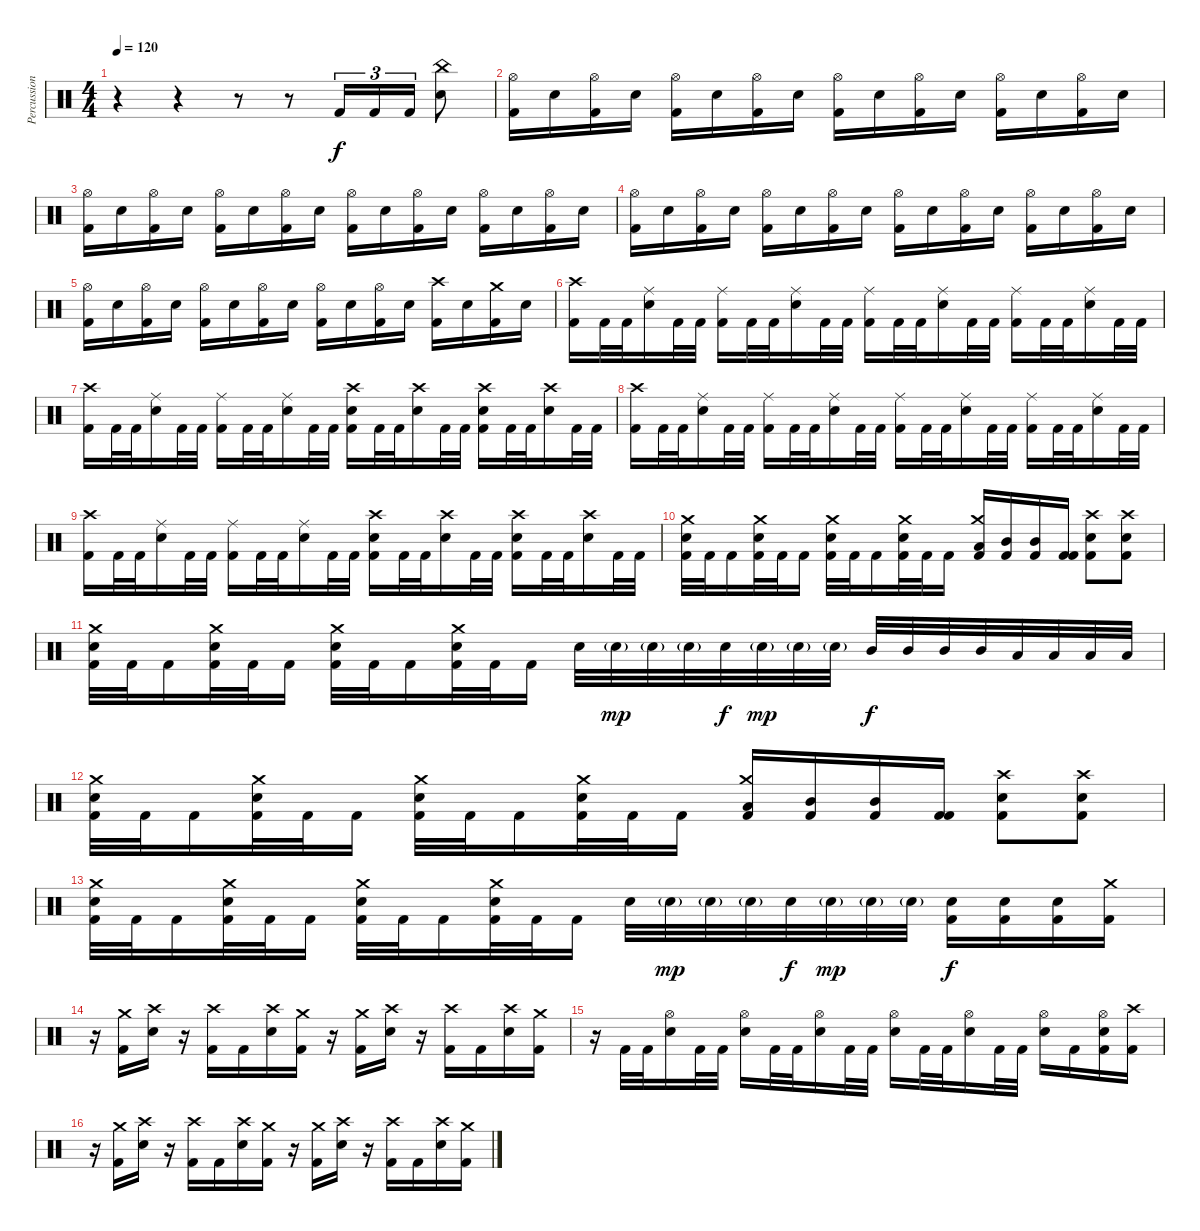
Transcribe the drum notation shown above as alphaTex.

\track ("Percussion" "Percussion") {instrument percussion}
\staff {score}
\articulation defaults
\ts (4 4)
\tempo 120
\clef neutral
\ks c
r.4{dy f} r.4 r.8 r.8 "Kick (hit) 2".16{tu (3 2)} "Kick (hit) 2".16{tu (3 2)} "Kick (hit) 2".16{tu (3 2)} ("China (hit)" "Electric Snare (hit)").8 |
("Hi-Hat (open)" "Kick (hit) 2").16 "Electric Snare (hit)".16 ("Hi-Hat (open)" "Kick (hit) 2").16 "Electric Snare (hit)".16 ("Hi-Hat (open)" "Kick (hit) 2").16 "Electric Snare (hit)".16 ("Hi-Hat (open)" "Kick (hit) 2").16 "Electric Snare (hit)".16 ("Hi-Hat (open)" "Kick (hit) 2").16 "Electric Snare (hit)".16 ("Hi-Hat (open)" "Kick (hit) 2").16 "Electric Snare (hit)".16 ("Hi-Hat (open)" "Kick (hit) 2").16 "Electric Snare (hit)".16 ("Hi-Hat (open)" "Kick (hit) 2").16 "Electric Snare (hit)".16 |
("Hi-Hat (open)" "Kick (hit) 2").16 "Electric Snare (hit)".16 ("Hi-Hat (open)" "Kick (hit) 2").16 "Electric Snare (hit)".16 ("Hi-Hat (open)" "Kick (hit) 2").16 "Electric Snare (hit)".16 ("Hi-Hat (open)" "Kick (hit) 2").16 "Electric Snare (hit)".16 ("Hi-Hat (open)" "Kick (hit) 2").16 "Electric Snare (hit)".16 ("Hi-Hat (open)" "Kick (hit) 2").16 "Electric Snare (hit)".16 ("Hi-Hat (open)" "Kick (hit) 2").16 "Electric Snare (hit)".16 ("Hi-Hat (open)" "Kick (hit) 2").16 "Electric Snare (hit)".16 |
("Hi-Hat (open)" "Kick (hit) 2").16 "Electric Snare (hit)".16 ("Hi-Hat (open)" "Kick (hit) 2").16 "Electric Snare (hit)".16 ("Hi-Hat (open)" "Kick (hit) 2").16 "Electric Snare (hit)".16 ("Hi-Hat (open)" "Kick (hit) 2").16 "Electric Snare (hit)".16 ("Hi-Hat (open)" "Kick (hit) 2").16 "Electric Snare (hit)".16 ("Hi-Hat (open)" "Kick (hit) 2").16 "Electric Snare (hit)".16 ("Hi-Hat (open)" "Kick (hit) 2").16 "Electric Snare (hit)".16 ("Hi-Hat (open)" "Kick (hit) 2").16 "Electric Snare (hit)".16 |
("Hi-Hat (open)" "Kick (hit) 2").16 "Electric Snare (hit)".16 ("Hi-Hat (open)" "Kick (hit) 2").16 "Electric Snare (hit)".16 ("Hi-Hat (open)" "Kick (hit) 2").16 "Electric Snare (hit)".16 ("Hi-Hat (open)" "Kick (hit) 2").16 "Electric Snare (hit)".16 ("Hi-Hat (open)" "Kick (hit) 2").16 "Electric Snare (hit)".16 ("Hi-Hat (open)" "Kick (hit) 2").16 "Electric Snare (hit)".16 ("Crash high (hit)" "Kick (hit) 2").16 "Electric Snare (hit)".16 ("Crash medium (hit)" "Kick (hit) 2").16 "Electric Snare (hit)".16 |
("Crash high (hit)" "Kick (hit) 2").16 "Kick (hit) 2".32 "Kick (hit) 2".32 ("Ride (middle)" "Electric Snare (hit)").16 "Kick (hit) 2".32 "Kick (hit) 2".32 ("Ride (middle)" "Kick (hit) 2").16 "Kick (hit) 2".32 "Kick (hit) 2".32 ("Ride (middle)" "Electric Snare (hit)").16 "Kick (hit) 2".32 "Kick (hit) 2".32 ("Ride (middle)" "Kick (hit) 2").16 "Kick (hit) 2".32 "Kick (hit) 2".32 ("Ride (middle)" "Electric Snare (hit)").16 "Kick (hit) 2".32 "Kick (hit) 2".32 ("Ride (middle)" "Kick (hit) 2").16 "Kick (hit) 2".32 "Kick (hit) 2".32 ("Ride (middle)" "Electric Snare (hit)").16 "Kick (hit) 2".32 "Kick (hit) 2".32 |
("Crash high (hit)" "Kick (hit) 2").16 "Kick (hit) 2".32 "Kick (hit) 2".32 ("Ride (middle)" "Electric Snare (hit)").16 "Kick (hit) 2".32 "Kick (hit) 2".32 ("Ride (middle)" "Kick (hit) 2").16 "Kick (hit) 2".32 "Kick (hit) 2".32 ("Ride (middle)" "Electric Snare (hit)").16 "Kick (hit) 2".32 "Kick (hit) 2".32 ("Crash high (hit)" "Electric Snare (hit)" "Kick (hit) 2").16 "Kick (hit) 2".32 "Kick (hit) 2".32 ("Crash high (hit)" "Electric Snare (hit)").16 "Kick (hit) 2".32 "Kick (hit) 2".32 ("Crash high (hit)" "Electric Snare (hit)" "Kick (hit) 2").16 "Kick (hit) 2".32 "Kick (hit) 2".32 ("Crash high (hit)" "Electric Snare (hit)").16 "Kick (hit) 2".32 "Kick (hit) 2".32 |
("Crash high (hit)" "Kick (hit) 2").16 "Kick (hit) 2".32 "Kick (hit) 2".32 ("Ride (middle)" "Electric Snare (hit)").16 "Kick (hit) 2".32 "Kick (hit) 2".32 ("Ride (middle)" "Kick (hit) 2").16 "Kick (hit) 2".32 "Kick (hit) 2".32 ("Ride (middle)" "Electric Snare (hit)").16 "Kick (hit) 2".32 "Kick (hit) 2".32 ("Ride (middle)" "Kick (hit) 2").16 "Kick (hit) 2".32 "Kick (hit) 2".32 ("Ride (middle)" "Electric Snare (hit)").16 "Kick (hit) 2".32 "Kick (hit) 2".32 ("Ride (middle)" "Kick (hit) 2").16 "Kick (hit) 2".32 "Kick (hit) 2".32 ("Ride (middle)" "Electric Snare (hit)").16 "Kick (hit) 2".32 "Kick (hit) 2".32 |
("Crash high (hit)" "Kick (hit) 2").16 "Kick (hit) 2".32 "Kick (hit) 2".32 ("Ride (middle)" "Electric Snare (hit)").16 "Kick (hit) 2".32 "Kick (hit) 2".32 ("Ride (middle)" "Kick (hit) 2").16 "Kick (hit) 2".32 "Kick (hit) 2".32 ("Ride (middle)" "Electric Snare (hit)").16 "Kick (hit) 2".32 "Kick (hit) 2".32 ("Crash high (hit)" "Electric Snare (hit)" "Kick (hit) 2").16 "Kick (hit) 2".32 "Kick (hit) 2".32 ("Crash high (hit)" "Electric Snare (hit)").16 "Kick (hit) 2".32 "Kick (hit) 2".32 ("Crash high (hit)" "Electric Snare (hit)" "Kick (hit) 2").16 "Kick (hit) 2".32 "Kick (hit) 2".32 ("Crash high (hit)" "Electric Snare (hit)").16 "Kick (hit) 2".32 "Kick (hit) 2".32 |
("Crash medium (hit)" "Electric Snare (hit)" "Kick (hit) 2").32 "Kick (hit) 2".32 "Kick (hit) 2".16 ("Crash medium (hit)" "Electric Snare (hit)" "Kick (hit) 2").32 "Kick (hit) 2".32 "Kick (hit) 2".16 ("Crash medium (hit)" "Electric Snare (hit)" "Kick (hit) 2").32 "Kick (hit) 2".32 "Kick (hit) 2".16 ("Crash medium (hit)" "Electric Snare (hit)" "Kick (hit) 2").32 "Kick (hit) 2".32 "Kick (hit) 2".16 ("Crash medium (hit)" "Low Tom (hit)" "Kick (hit) 2").16 ("Mid Tom (hit)" "Kick (hit) 2").16 ("Mid Tom (hit)" "Kick (hit) 2").16 ("Kick (hit) 2" "Kick (hit) 2").16 ("Crash high (hit)" "Electric Snare (hit)" "Kick (hit) 2").8 ("Crash high (hit)" "Electric Snare (hit)" "Kick (hit) 2").8 |
("Crash medium (hit)" "Electric Snare (hit)" "Kick (hit) 2").32 "Kick (hit) 2".32 "Kick (hit) 2".16 ("Crash medium (hit)" "Electric Snare (hit)" "Kick (hit) 2").32 "Kick (hit) 2".32 "Kick (hit) 2".16 ("Crash medium (hit)" "Electric Snare (hit)" "Kick (hit) 2").32 "Kick (hit) 2".32 "Kick (hit) 2".16 ("Crash medium (hit)" "Electric Snare (hit)" "Kick (hit) 2").32 "Kick (hit) 2".32 "Kick (hit) 2".16 "Electric Snare (hit)".32 "Electric Snare (hit)"{g}.32{dy mp} "Electric Snare (hit)"{g}.32 "Electric Snare (hit)"{g}.32 "Electric Snare (hit)".32{dy f} "Electric Snare (hit)"{g}.32{dy mp} "Electric Snare (hit)"{g}.32 "Electric Snare (hit)"{g}.32 "Mid Tom (hit)".32{dy f} "Mid Tom (hit)".32 "Mid Tom (hit)".32 "Mid Tom (hit)".32 "Low Tom (hit)".32 "Low Tom (hit)".32 "Low Tom (hit)".32 "Low Tom (hit)".32 |
("Crash medium (hit)" "Electric Snare (hit)" "Kick (hit) 2").32 "Kick (hit) 2".32 "Kick (hit) 2".16 ("Crash medium (hit)" "Electric Snare (hit)" "Kick (hit) 2").32 "Kick (hit) 2".32 "Kick (hit) 2".16 ("Crash medium (hit)" "Electric Snare (hit)" "Kick (hit) 2").32 "Kick (hit) 2".32 "Kick (hit) 2".16 ("Crash medium (hit)" "Electric Snare (hit)" "Kick (hit) 2").32 "Kick (hit) 2".32 "Kick (hit) 2".16 ("Crash medium (hit)" "Low Tom (hit)" "Kick (hit) 2").16 ("Mid Tom (hit)" "Kick (hit) 2").16 ("Mid Tom (hit)" "Kick (hit) 2").16 ("Kick (hit) 2" "Kick (hit) 2").16 ("Crash high (hit)" "Electric Snare (hit)" "Kick (hit) 2").8 ("Crash high (hit)" "Electric Snare (hit)" "Kick (hit) 2").8 |
("Crash medium (hit)" "Electric Snare (hit)" "Kick (hit) 2").32 "Kick (hit) 2".32 "Kick (hit) 2".16 ("Crash medium (hit)" "Electric Snare (hit)" "Kick (hit) 2").32 "Kick (hit) 2".32 "Kick (hit) 2".16 ("Crash medium (hit)" "Electric Snare (hit)" "Kick (hit) 2").32 "Kick (hit) 2".32 "Kick (hit) 2".16 ("Crash medium (hit)" "Electric Snare (hit)" "Kick (hit) 2").32 "Kick (hit) 2".32 "Kick (hit) 2".16 "Electric Snare (hit)".32 "Electric Snare (hit)"{g}.32{dy mp} "Electric Snare (hit)"{g}.32 "Electric Snare (hit)"{g}.32 "Electric Snare (hit)".32{dy f} "Electric Snare (hit)"{g}.32{dy mp} "Electric Snare (hit)"{g}.32 "Electric Snare (hit)"{g}.32 ("Electric Snare (hit)" "Kick (hit) 2").16{dy f} ("Electric Snare (hit)" "Kick (hit) 2").16 ("Electric Snare (hit)" "Kick (hit) 2").16 ("Crash medium (hit)" "Kick (hit) 2").16 |
r.16 ("Crash medium (hit)" "Kick (hit) 2").16 ("Crash high (hit)" "Electric Snare (hit)").16 r.16 ("Crash high (hit)" "Kick (hit) 2").16 "Kick (hit) 2".16 ("Crash high (hit)" "Electric Snare (hit)").16 ("Crash medium (hit)" "Kick (hit) 2").16 r.16 ("Crash medium (hit)" "Kick (hit) 2").16 ("Crash high (hit)" "Electric Snare (hit)").16 r.16 ("Crash high (hit)" "Kick (hit) 2").16 "Kick (hit) 2".16 ("Crash high (hit)" "Electric Snare (hit)").16 ("Crash medium (hit)" "Kick (hit) 2").16 |
r.16 "Kick (hit) 2".32 "Kick (hit) 2".32 ("Hi-Hat (open)" "Electric Snare (hit)").16 "Kick (hit) 2".32 "Kick (hit) 2".32 ("Hi-Hat (open)" "Electric Snare (hit)").16 "Kick (hit) 2".32 "Kick (hit) 2".32 ("Hi-Hat (open)" "Electric Snare (hit)").16 "Kick (hit) 2".32 "Kick (hit) 2".32 ("Hi-Hat (open)" "Electric Snare (hit)").16 "Kick (hit) 2".32 "Kick (hit) 2".32 ("Hi-Hat (open)" "Electric Snare (hit)").16 "Kick (hit) 2".32 "Kick (hit) 2".32 ("Hi-Hat (open)" "Electric Snare (hit)").16 "Kick (hit) 2".16 ("Hi-Hat (open)" "Electric Snare (hit)" "Kick (hit) 2").16 ("Crash high (hit)" "Kick (hit) 2").16 |
r.16 ("Crash medium (hit)" "Kick (hit) 2").16 ("Crash high (hit)" "Electric Snare (hit)").16 r.16 ("Crash high (hit)" "Kick (hit) 2").16 "Kick (hit) 2".16 ("Crash high (hit)" "Electric Snare (hit)").16 ("Crash medium (hit)" "Kick (hit) 2").16 r.16 ("Crash medium (hit)" "Kick (hit) 2").16 ("Crash high (hit)" "Electric Snare (hit)").16 r.16 ("Crash high (hit)" "Kick (hit) 2").16 "Kick (hit) 2".16 ("Crash high (hit)" "Electric Snare (hit)").16 ("Crash medium (hit)" "Kick (hit) 2").16
